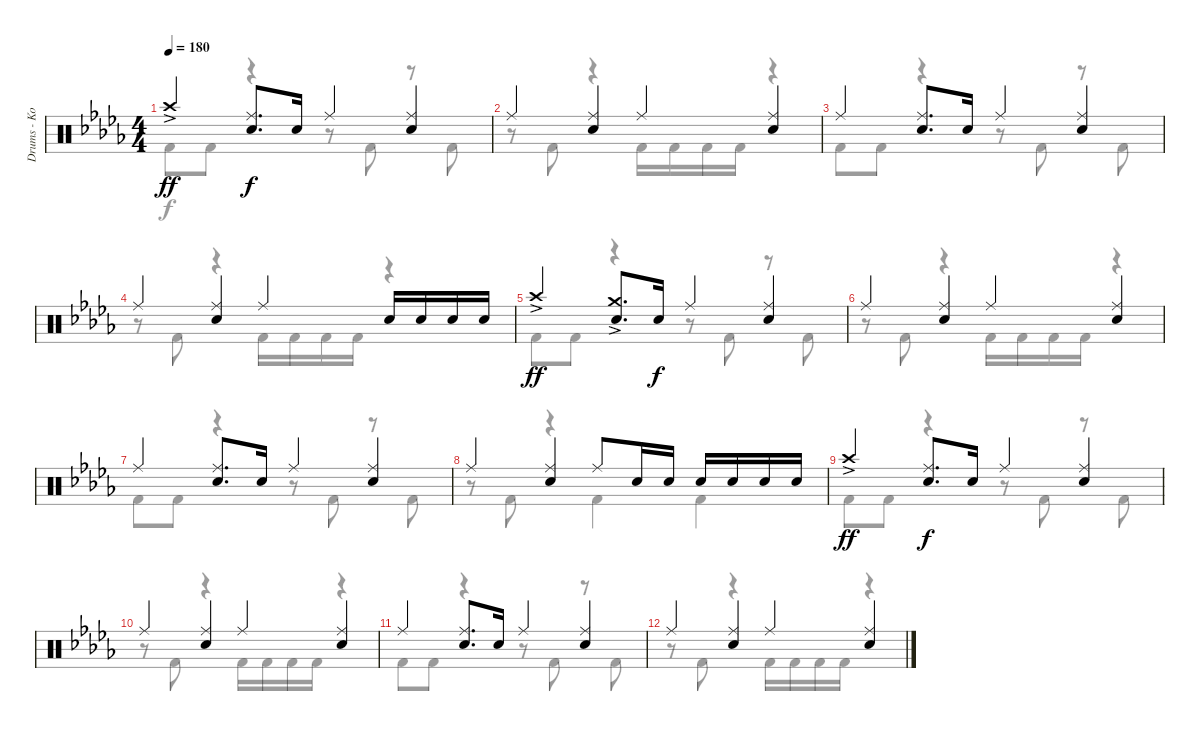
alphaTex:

\track ("Drums - Koji Hasegawa" "Drums - Ko") {instrument percussion}
\staff {score}
\articulation defaults
\voice
\ts (4 4)
\tempo 180
\clef neutral
\ks db "Crash high (hit)"{ac}.4{dy ff}
("Ride (middle)" "Snare (hit) 2").8{d dy f} "Snare (hit) 2".16 "Ride (middle)".4 ("Ride (middle)" "Snare (hit) 2").4 |
"Ride (middle)".4 ("Ride (middle)" "Snare (hit) 2").4 "Ride (middle)".4 ("Ride (middle)" "Snare (hit) 2").4 |
"Ride (middle)".4 ("Ride (middle)" "Snare (hit) 2").8{d} "Snare (hit) 2".16 "Ride (middle)".4 ("Ride (middle)" "Snare (hit) 2").4 |
"Ride (middle)".4 ("Ride (middle)" "Snare (hit) 2").4 "Ride (middle)".4 "Snare (hit) 2".16 "Snare (hit) 2".16 "Snare (hit) 2".16 "Snare (hit) 2".16 |
"Crash high (hit)"{ac}.4{dy ff} ("Crash medium (hit)"{ac} "Snare (hit) 2").8{d} "Snare (hit) 2".16{dy f} "Ride (middle)".4 ("Ride (middle)" "Snare (hit) 2").4 |
"Ride (middle)".4 ("Ride (middle)" "Snare (hit) 2").4 "Ride (middle)".4 ("Ride (middle)" "Snare (hit) 2").4 |
"Ride (middle)".4 ("Ride (middle)" "Snare (hit) 2").8{d} "Snare (hit) 2".16 "Ride (middle)".4 ("Ride (middle)" "Snare (hit) 2").4 |
"Ride (middle)".4 ("Ride (middle)" "Snare (hit) 2").4 "Ride (middle)".8 "Snare (hit) 2".16 "Snare (hit) 2".16 "Snare (hit) 2".16 "Snare (hit) 2".16 "Snare (hit) 2".16 "Snare (hit) 2".16 |
"Crash high (hit)"{ac}.4{dy ff} ("Ride (middle)" "Snare (hit) 2").8{d dy f} "Snare (hit) 2".16 "Ride (middle)".4 ("Ride (middle)" "Snare (hit) 2").4 |
"Ride (middle)".4 ("Ride (middle)" "Snare (hit) 2").4 "Ride (middle)".4 ("Ride (middle)" "Snare (hit) 2").4 |
"Ride (middle)".4 ("Ride (middle)" "Snare (hit) 2").8{d} "Snare (hit) 2".16 "Ride (middle)".4 ("Ride (middle)" "Snare (hit) 2").4 |
"Ride (middle)".4 ("Ride (middle)" "Snare (hit) 2").4 "Ride (middle)".4 ("Ride (middle)" "Snare (hit) 2").4
\voice
\clef neutral
\ottava regular
\simile none
\ks db "Kick (hit) 2".8{dy f} "Kick (hit) 2".8
r.4 r.8 "Kick (hit) 2".8 r.8 "Kick (hit) 2".8 |
r.8 "Kick (hit) 2".8 r.4 "Kick (hit) 2".16 "Kick (hit) 2".16 "Kick (hit) 2".16 "Kick (hit) 2".16 r.4 |
"Kick (hit) 2".8 "Kick (hit) 2".8 r.4 r.8 "Kick (hit) 2".8 r.8 "Kick (hit) 2".8 |
r.8 "Kick (hit) 2".8 r.4 "Kick (hit) 2".16 "Kick (hit) 2".16 "Kick (hit) 2".16 "Kick (hit) 2".16 r.4 |
"Kick (hit) 2".8 "Kick (hit) 2".8 r.4 r.8 "Kick (hit) 2".8 r.8 "Kick (hit) 2".8 |
r.8 "Kick (hit) 2".8 r.4 "Kick (hit) 2".16 "Kick (hit) 2".16 "Kick (hit) 2".16 "Kick (hit) 2".16 r.4 |
"Kick (hit) 2".8 "Kick (hit) 2".8 r.4 r.8 "Kick (hit) 2".8 r.8 "Kick (hit) 2".8 |
r.8 "Kick (hit) 2".8 r.4 "Kick (hit) 2".4 "Kick (hit) 2".4 |
"Kick (hit) 2".8 "Kick (hit) 2".8 r.4 r.8 "Kick (hit) 2".8 r.8 "Kick (hit) 2".8 |
r.8 "Kick (hit) 2".8 r.4 "Kick (hit) 2".16 "Kick (hit) 2".16 "Kick (hit) 2".16 "Kick (hit) 2".16 r.4 |
"Kick (hit) 2".8 "Kick (hit) 2".8 r.4 r.8 "Kick (hit) 2".8 r.8 "Kick (hit) 2".8 |
r.8 "Kick (hit) 2".8 r.4 "Kick (hit) 2".16 "Kick (hit) 2".16 "Kick (hit) 2".16 "Kick (hit) 2".16 r.4
